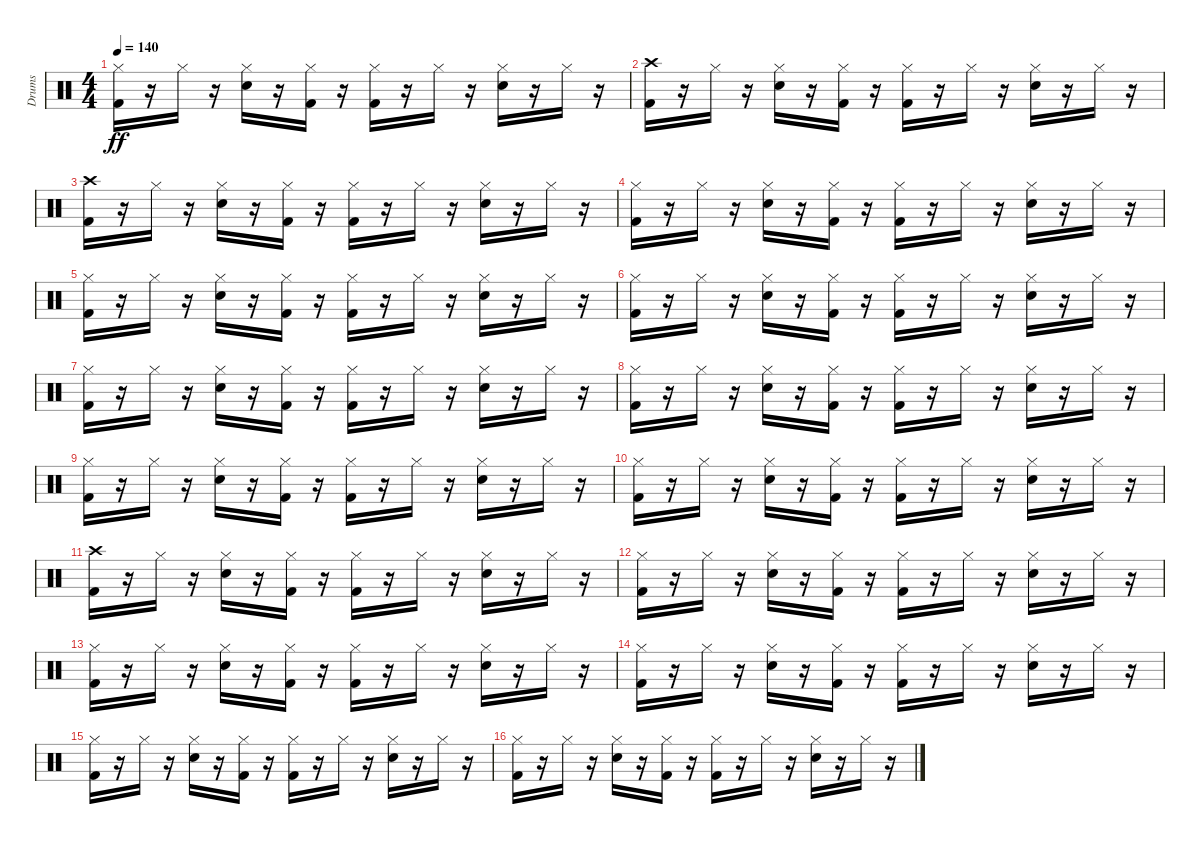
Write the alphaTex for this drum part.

\track ("Drums" "Drums") {instrument percussion}
\staff {score}
\articulation defaults
\ts (4 4)
\tempo 140
\clef neutral
\ks c
("Hi-Hat (closed)" "Kick (hit) 2").16{dy ff} r.16 "Hi-Hat (closed)".16 r.16 ("Hi-Hat (closed)" "Snare (hit) 2").16 r.16 ("Hi-Hat (closed)" "Kick (hit) 2").16 r.16 ("Hi-Hat (closed)" "Kick (hit) 2").16 r.16 "Hi-Hat (closed)".16 r.16 ("Hi-Hat (closed)" "Snare (hit) 2").16 r.16 "Hi-Hat (closed)".16 r.16 |
("Crash high (hit)" "Kick (hit) 2").16 r.16 "Hi-Hat (closed)".16 r.16 ("Hi-Hat (closed)" "Snare (hit) 2").16 r.16 ("Hi-Hat (closed)" "Kick (hit) 2").16 r.16 ("Hi-Hat (closed)" "Kick (hit) 2").16 r.16 "Hi-Hat (closed)".16 r.16 ("Hi-Hat (closed)" "Snare (hit) 2").16 r.16 "Hi-Hat (closed)".16 r.16 |
("Crash high (hit)" "Kick (hit) 2").16 r.16 "Hi-Hat (closed)".16 r.16 ("Hi-Hat (closed)" "Snare (hit) 2").16 r.16 ("Hi-Hat (closed)" "Kick (hit) 2").16 r.16 ("Hi-Hat (closed)" "Kick (hit) 2").16 r.16 "Hi-Hat (closed)".16 r.16 ("Hi-Hat (closed)" "Snare (hit) 2").16 r.16 "Hi-Hat (closed)".16 r.16 |
("Hi-Hat (closed)" "Kick (hit) 2").16 r.16 "Hi-Hat (closed)".16 r.16 ("Hi-Hat (closed)" "Snare (hit) 2").16 r.16 ("Hi-Hat (closed)" "Kick (hit) 2").16 r.16 ("Hi-Hat (closed)" "Kick (hit) 2").16 r.16 "Hi-Hat (closed)".16 r.16 ("Hi-Hat (closed)" "Snare (hit) 2").16 r.16 "Hi-Hat (closed)".16 r.16 |
("Hi-Hat (closed)" "Kick (hit) 2").16 r.16 "Hi-Hat (closed)".16 r.16 ("Hi-Hat (closed)" "Snare (hit) 2").16 r.16 ("Hi-Hat (closed)" "Kick (hit) 2").16 r.16 ("Hi-Hat (closed)" "Kick (hit) 2").16 r.16 "Hi-Hat (closed)".16 r.16 ("Hi-Hat (closed)" "Snare (hit) 2").16 r.16 "Hi-Hat (closed)".16 r.16 |
("Hi-Hat (closed)" "Kick (hit) 2").16 r.16 "Hi-Hat (closed)".16 r.16 ("Hi-Hat (closed)" "Snare (hit) 2").16 r.16 ("Hi-Hat (closed)" "Kick (hit) 2").16 r.16 ("Hi-Hat (closed)" "Kick (hit) 2").16 r.16 "Hi-Hat (closed)".16 r.16 ("Hi-Hat (closed)" "Snare (hit) 2").16 r.16 "Hi-Hat (closed)".16 r.16 |
("Hi-Hat (closed)" "Kick (hit) 2").16 r.16 "Hi-Hat (closed)".16 r.16 ("Hi-Hat (closed)" "Snare (hit) 2").16 r.16 ("Hi-Hat (closed)" "Kick (hit) 2").16 r.16 ("Hi-Hat (closed)" "Kick (hit) 2").16 r.16 "Hi-Hat (closed)".16 r.16 ("Hi-Hat (closed)" "Snare (hit) 2").16 r.16 "Hi-Hat (closed)".16 r.16 |
("Hi-Hat (closed)" "Kick (hit) 2").16 r.16 "Hi-Hat (closed)".16 r.16 ("Hi-Hat (closed)" "Snare (hit) 2").16 r.16 ("Hi-Hat (closed)" "Kick (hit) 2").16 r.16 ("Hi-Hat (closed)" "Kick (hit) 2").16 r.16 "Hi-Hat (closed)".16 r.16 ("Hi-Hat (closed)" "Snare (hit) 2").16 r.16 "Hi-Hat (closed)".16 r.16 |
("Hi-Hat (closed)" "Kick (hit) 2").16 r.16 "Hi-Hat (closed)".16 r.16 ("Hi-Hat (closed)" "Snare (hit) 2").16 r.16 ("Hi-Hat (closed)" "Kick (hit) 2").16 r.16 ("Hi-Hat (closed)" "Kick (hit) 2").16 r.16 "Hi-Hat (closed)".16 r.16 ("Hi-Hat (closed)" "Snare (hit) 2").16 r.16 "Hi-Hat (closed)".16 r.16 |
("Hi-Hat (closed)" "Kick (hit) 2").16 r.16 "Hi-Hat (closed)".16 r.16 ("Hi-Hat (closed)" "Snare (hit) 2").16 r.16 ("Hi-Hat (closed)" "Kick (hit) 2").16 r.16 ("Hi-Hat (closed)" "Kick (hit) 2").16 r.16 "Hi-Hat (closed)".16 r.16 ("Hi-Hat (closed)" "Snare (hit) 2").16 r.16 "Hi-Hat (closed)".16 r.16 |
("Crash high (hit)" "Kick (hit) 2").16 r.16 "Hi-Hat (closed)".16 r.16 ("Hi-Hat (closed)" "Snare (hit) 2").16 r.16 ("Hi-Hat (closed)" "Kick (hit) 2").16 r.16 ("Hi-Hat (closed)" "Kick (hit) 2").16 r.16 "Hi-Hat (closed)".16 r.16 ("Hi-Hat (closed)" "Snare (hit) 2").16 r.16 "Hi-Hat (closed)".16 r.16 |
("Hi-Hat (closed)" "Kick (hit) 2").16 r.16 "Hi-Hat (closed)".16 r.16 ("Hi-Hat (closed)" "Snare (hit) 2").16 r.16 ("Hi-Hat (closed)" "Kick (hit) 2").16 r.16 ("Hi-Hat (closed)" "Kick (hit) 2").16 r.16 "Hi-Hat (closed)".16 r.16 ("Hi-Hat (closed)" "Snare (hit) 2").16 r.16 "Hi-Hat (closed)".16 r.16 |
("Hi-Hat (closed)" "Kick (hit) 2").16 r.16 "Hi-Hat (closed)".16 r.16 ("Hi-Hat (closed)" "Snare (hit) 2").16 r.16 ("Hi-Hat (closed)" "Kick (hit) 2").16 r.16 ("Hi-Hat (closed)" "Kick (hit) 2").16 r.16 "Hi-Hat (closed)".16 r.16 ("Hi-Hat (closed)" "Snare (hit) 2").16 r.16 "Hi-Hat (closed)".16 r.16 |
("Hi-Hat (closed)" "Kick (hit) 2").16 r.16 "Hi-Hat (closed)".16 r.16 ("Hi-Hat (closed)" "Snare (hit) 2").16 r.16 ("Hi-Hat (closed)" "Kick (hit) 2").16 r.16 ("Hi-Hat (closed)" "Kick (hit) 2").16 r.16 "Hi-Hat (closed)".16 r.16 ("Hi-Hat (closed)" "Snare (hit) 2").16 r.16 "Hi-Hat (closed)".16 r.16 |
("Hi-Hat (closed)" "Kick (hit) 2").16 r.16 "Hi-Hat (closed)".16 r.16 ("Hi-Hat (closed)" "Snare (hit) 2").16 r.16 ("Hi-Hat (closed)" "Kick (hit) 2").16 r.16 ("Hi-Hat (closed)" "Kick (hit) 2").16 r.16 "Hi-Hat (closed)".16 r.16 ("Hi-Hat (closed)" "Snare (hit) 2").16 r.16 "Hi-Hat (closed)".16 r.16 |
("Hi-Hat (closed)" "Kick (hit) 2").16 r.16 "Hi-Hat (closed)".16 r.16 ("Hi-Hat (closed)" "Snare (hit) 2").16 r.16 ("Hi-Hat (closed)" "Kick (hit) 2").16 r.16 ("Hi-Hat (closed)" "Kick (hit) 2").16 r.16 "Hi-Hat (closed)".16 r.16 ("Hi-Hat (closed)" "Snare (hit) 2").16 r.16 "Hi-Hat (closed)".16 r.16
